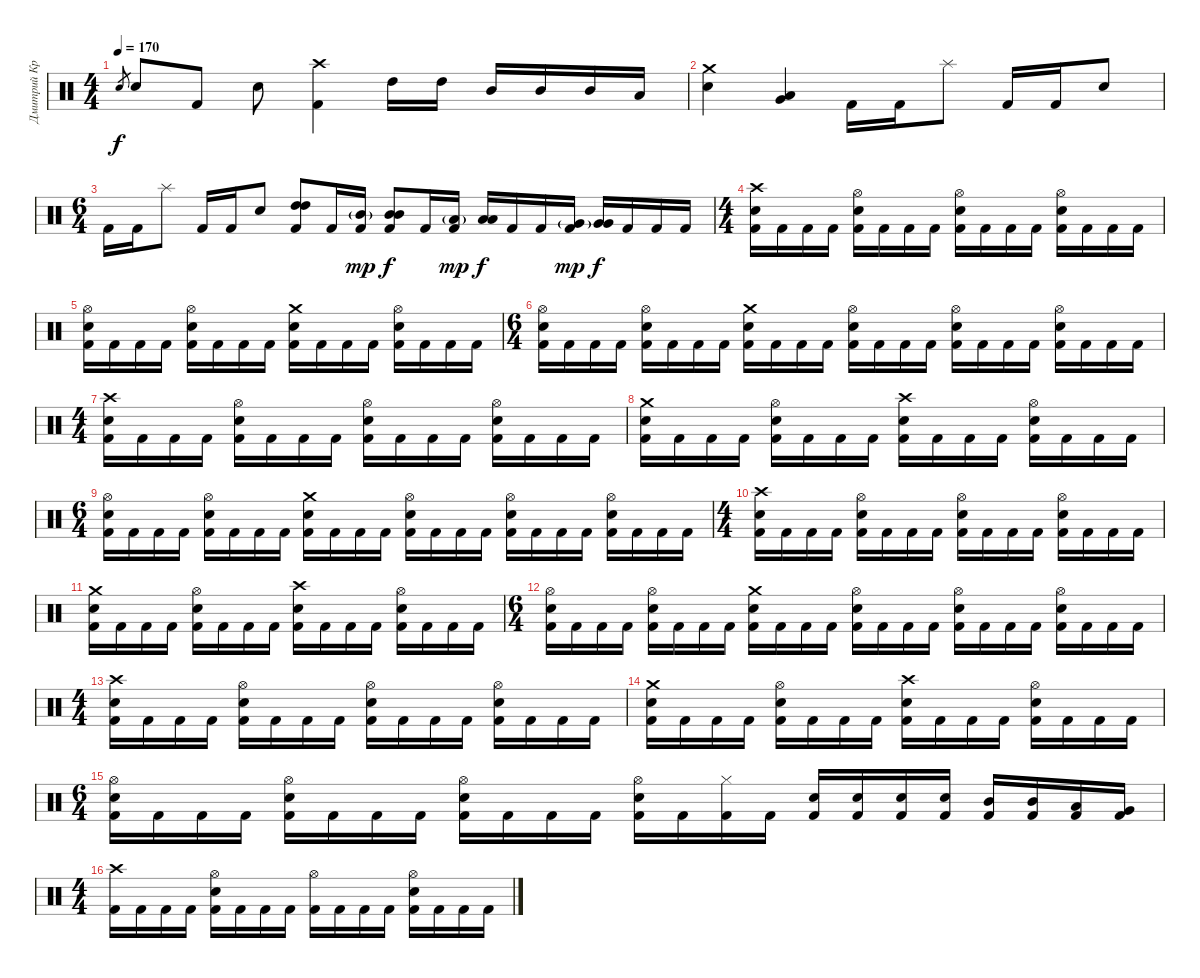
\track ("Дмитрий Кривенков" "Дмитрий Кр") {instrument percussion}
\staff {score}
\articulation defaults
\ts (4 4)
\tempo 170
\clef neutral
\ks c "Electric Snare (hit)".8{gr dy f} "Electric Snare (hit)".8 "Kick (hit) 2".8 "Electric Snare (hit)".8
("Crash high (hit)" "Kick (hit) 2").4 "High Tom (hit)".16 "High Tom (hit)".16 "Mid Tom (hit)".16 "Mid Tom (hit)".16 "Mid Tom (hit)".16 "Low Tom (hit)".16 |
("Crash medium (hit)" "Electric Snare (hit)").4 ("Low Floor Tom (hit)" "Very Low Tom (hit)").4 "Kick (hit) 2".16 "Kick (hit) 2".16 "Splash (hit)".8 "Kick (hit) 2".16 "Kick (hit) 2".16 "Electric Snare (hit)".8 |
\ts (6 4)
"Kick (hit) 2".16 "Kick (hit) 2".16 "Splash (hit)".8 "Kick (hit) 2".16 "Kick (hit) 2".16 "Electric Snare (hit)".8 ("High Tom (hit)" "High Tom (hit)" "Kick (hit) 2").8 "Kick (hit) 2".16 ("Mid Tom (hit)"{g} "Kick (hit) 2").16{dy mp} ("Mid Tom (hit)" "Mid Tom (hit)" "Kick (hit) 2").8{dy f} "Kick (hit) 2".16 ("Low Tom (hit)"{g} "Kick (hit) 2").16{dy mp} ("Low Tom (hit)" "Low Tom (hit)").16{dy f} "Kick (hit) 2".16 "Kick (hit) 2".16 ("Very Low Tom (hit)"{g} "Kick (hit) 2").16{dy mp} ("Very Low Tom (hit)" "Very Low Tom (hit)").16{dy f} "Kick (hit) 2".16 "Kick (hit) 2".16 "Kick (hit) 2".16 |
\ts (4 4)
("Crash high (hit)" "Electric Snare (hit)" "Kick (hit) 2").16 "Kick (hit) 2".16 "Kick (hit) 2".16 "Kick (hit) 2".16 ("Hi-Hat (open)" "Electric Snare (hit)" "Kick (hit) 2").16 "Kick (hit) 2".16 "Kick (hit) 2".16 "Kick (hit) 2".16 ("Hi-Hat (open)" "Electric Snare (hit)" "Kick (hit) 2").16 "Kick (hit) 2".16 "Kick (hit) 2".16 "Kick (hit) 2".16 ("Hi-Hat (open)" "Electric Snare (hit)" "Kick (hit) 2").16 "Kick (hit) 2".16 "Kick (hit) 2".16 "Kick (hit) 2".16 |
("Hi-Hat (open)" "Electric Snare (hit)" "Kick (hit) 2").16 "Kick (hit) 2".16 "Kick (hit) 2".16 "Kick (hit) 2".16 ("Hi-Hat (open)" "Electric Snare (hit)" "Kick (hit) 2").16 "Kick (hit) 2".16 "Kick (hit) 2".16 "Kick (hit) 2".16 ("Crash medium (hit)" "Electric Snare (hit)" "Kick (hit) 2").16 "Kick (hit) 2".16 "Kick (hit) 2".16 "Kick (hit) 2".16 ("Hi-Hat (open)" "Electric Snare (hit)" "Kick (hit) 2").16 "Kick (hit) 2".16 "Kick (hit) 2".16 "Kick (hit) 2".16 |
\ts (6 4)
("Hi-Hat (open)" "Electric Snare (hit)" "Kick (hit) 2").16 "Kick (hit) 2".16 "Kick (hit) 2".16 "Kick (hit) 2".16 ("Hi-Hat (open)" "Electric Snare (hit)" "Kick (hit) 2").16 "Kick (hit) 2".16 "Kick (hit) 2".16 "Kick (hit) 2".16 ("Crash medium (hit)" "Electric Snare (hit)" "Kick (hit) 2").16 "Kick (hit) 2".16 "Kick (hit) 2".16 "Kick (hit) 2".16 ("Hi-Hat (open)" "Electric Snare (hit)" "Kick (hit) 2").16 "Kick (hit) 2".16 "Kick (hit) 2".16 "Kick (hit) 2".16 ("Hi-Hat (open)" "Electric Snare (hit)" "Kick (hit) 2").16 "Kick (hit) 2".16 "Kick (hit) 2".16 "Kick (hit) 2".16 ("Hi-Hat (open)" "Electric Snare (hit)" "Kick (hit) 2").16 "Kick (hit) 2".16 "Kick (hit) 2".16 "Kick (hit) 2".16 |
\ts (4 4)
("Crash high (hit)" "Electric Snare (hit)" "Kick (hit) 2").16 "Kick (hit) 2".16 "Kick (hit) 2".16 "Kick (hit) 2".16 ("Hi-Hat (open)" "Electric Snare (hit)" "Kick (hit) 2").16 "Kick (hit) 2".16 "Kick (hit) 2".16 "Kick (hit) 2".16 ("Hi-Hat (open)" "Electric Snare (hit)" "Kick (hit) 2").16 "Kick (hit) 2".16 "Kick (hit) 2".16 "Kick (hit) 2".16 ("Hi-Hat (open)" "Electric Snare (hit)" "Kick (hit) 2").16 "Kick (hit) 2".16 "Kick (hit) 2".16 "Kick (hit) 2".16 |
("Crash medium (hit)" "Electric Snare (hit)" "Kick (hit) 2").16 "Kick (hit) 2".16 "Kick (hit) 2".16 "Kick (hit) 2".16 ("Hi-Hat (open)" "Electric Snare (hit)" "Kick (hit) 2").16 "Kick (hit) 2".16 "Kick (hit) 2".16 "Kick (hit) 2".16 ("Crash high (hit)" "Electric Snare (hit)" "Kick (hit) 2").16 "Kick (hit) 2".16 "Kick (hit) 2".16 "Kick (hit) 2".16 ("Hi-Hat (open)" "Electric Snare (hit)" "Kick (hit) 2").16 "Kick (hit) 2".16 "Kick (hit) 2".16 "Kick (hit) 2".16 |
\ts (6 4)
("Hi-Hat (open)" "Electric Snare (hit)" "Kick (hit) 2").16 "Kick (hit) 2".16 "Kick (hit) 2".16 "Kick (hit) 2".16 ("Hi-Hat (open)" "Electric Snare (hit)" "Kick (hit) 2").16 "Kick (hit) 2".16 "Kick (hit) 2".16 "Kick (hit) 2".16 ("Crash medium (hit)" "Electric Snare (hit)" "Kick (hit) 2").16 "Kick (hit) 2".16 "Kick (hit) 2".16 "Kick (hit) 2".16 ("Hi-Hat (open)" "Electric Snare (hit)" "Kick (hit) 2").16 "Kick (hit) 2".16 "Kick (hit) 2".16 "Kick (hit) 2".16 ("Hi-Hat (open)" "Electric Snare (hit)" "Kick (hit) 2").16 "Kick (hit) 2".16 "Kick (hit) 2".16 "Kick (hit) 2".16 ("Hi-Hat (open)" "Electric Snare (hit)" "Kick (hit) 2").16 "Kick (hit) 2".16 "Kick (hit) 2".16 "Kick (hit) 2".16 |
\ts (4 4)
("Crash high (hit)" "Electric Snare (hit)" "Kick (hit) 2").16 "Kick (hit) 2".16 "Kick (hit) 2".16 "Kick (hit) 2".16 ("Hi-Hat (open)" "Electric Snare (hit)" "Kick (hit) 2").16 "Kick (hit) 2".16 "Kick (hit) 2".16 "Kick (hit) 2".16 ("Hi-Hat (open)" "Electric Snare (hit)" "Kick (hit) 2").16 "Kick (hit) 2".16 "Kick (hit) 2".16 "Kick (hit) 2".16 ("Hi-Hat (open)" "Electric Snare (hit)" "Kick (hit) 2").16 "Kick (hit) 2".16 "Kick (hit) 2".16 "Kick (hit) 2".16 |
("Crash medium (hit)" "Electric Snare (hit)" "Kick (hit) 2").16 "Kick (hit) 2".16 "Kick (hit) 2".16 "Kick (hit) 2".16 ("Hi-Hat (open)" "Electric Snare (hit)" "Kick (hit) 2").16 "Kick (hit) 2".16 "Kick (hit) 2".16 "Kick (hit) 2".16 ("Crash high (hit)" "Electric Snare (hit)" "Kick (hit) 2").16 "Kick (hit) 2".16 "Kick (hit) 2".16 "Kick (hit) 2".16 ("Hi-Hat (open)" "Electric Snare (hit)" "Kick (hit) 2").16 "Kick (hit) 2".16 "Kick (hit) 2".16 "Kick (hit) 2".16 |
\ts (6 4)
("Hi-Hat (open)" "Electric Snare (hit)" "Kick (hit) 2").16 "Kick (hit) 2".16 "Kick (hit) 2".16 "Kick (hit) 2".16 ("Hi-Hat (open)" "Electric Snare (hit)" "Kick (hit) 2").16 "Kick (hit) 2".16 "Kick (hit) 2".16 "Kick (hit) 2".16 ("Crash medium (hit)" "Electric Snare (hit)" "Kick (hit) 2").16 "Kick (hit) 2".16 "Kick (hit) 2".16 "Kick (hit) 2".16 ("Hi-Hat (open)" "Electric Snare (hit)" "Kick (hit) 2").16 "Kick (hit) 2".16 "Kick (hit) 2".16 "Kick (hit) 2".16 ("Hi-Hat (open)" "Electric Snare (hit)" "Kick (hit) 2").16 "Kick (hit) 2".16 "Kick (hit) 2".16 "Kick (hit) 2".16 ("Hi-Hat (open)" "Electric Snare (hit)" "Kick (hit) 2").16 "Kick (hit) 2".16 "Kick (hit) 2".16 "Kick (hit) 2".16 |
\ts (4 4)
("Crash high (hit)" "Electric Snare (hit)" "Kick (hit) 2").16 "Kick (hit) 2".16 "Kick (hit) 2".16 "Kick (hit) 2".16 ("Hi-Hat (open)" "Electric Snare (hit)" "Kick (hit) 2").16 "Kick (hit) 2".16 "Kick (hit) 2".16 "Kick (hit) 2".16 ("Hi-Hat (open)" "Electric Snare (hit)" "Kick (hit) 2").16 "Kick (hit) 2".16 "Kick (hit) 2".16 "Kick (hit) 2".16 ("Hi-Hat (open)" "Electric Snare (hit)" "Kick (hit) 2").16 "Kick (hit) 2".16 "Kick (hit) 2".16 "Kick (hit) 2".16 |
("Crash medium (hit)" "Electric Snare (hit)" "Kick (hit) 2").16 "Kick (hit) 2".16 "Kick (hit) 2".16 "Kick (hit) 2".16 ("Hi-Hat (open)" "Electric Snare (hit)" "Kick (hit) 2").16 "Kick (hit) 2".16 "Kick (hit) 2".16 "Kick (hit) 2".16 ("Crash high (hit)" "Electric Snare (hit)" "Kick (hit) 2").16 "Kick (hit) 2".16 "Kick (hit) 2".16 "Kick (hit) 2".16 ("Hi-Hat (open)" "Electric Snare (hit)" "Kick (hit) 2").16 "Kick (hit) 2".16 "Kick (hit) 2".16 "Kick (hit) 2".16 |
\ts (6 4)
("Hi-Hat (open)" "Electric Snare (hit)" "Kick (hit) 2").16 "Kick (hit) 2".16 "Kick (hit) 2".16 "Kick (hit) 2".16 ("Hi-Hat (open)" "Electric Snare (hit)" "Kick (hit) 2").16 "Kick (hit) 2".16 "Kick (hit) 2".16 "Kick (hit) 2".16 ("Hi-Hat (open)" "Electric Snare (hit)" "Kick (hit) 2").16 "Kick (hit) 2".16 "Kick (hit) 2".16 "Kick (hit) 2".16 ("Hi-Hat (open)" "Electric Snare (hit)" "Kick (hit) 2").16 "Kick (hit) 2".16 ("Hi-Hat (closed)" "Kick (hit) 2").16 "Kick (hit) 2".16 ("Electric Snare (hit)" "Kick (hit) 2").16 ("Electric Snare (hit)" "Kick (hit) 2").16 ("Electric Snare (hit)" "Kick (hit) 2").16 ("Electric Snare (hit)" "Kick (hit) 2").16 ("Mid Tom (hit)" "Kick (hit) 2").16 ("Mid Tom (hit)" "Kick (hit) 2").16 ("Low Tom (hit)" "Kick (hit) 2").16 ("Very Low Tom (hit)" "Kick (hit) 2").16 |
\ts (4 4)
("Crash high (hit)" "Kick (hit) 2").16 "Kick (hit) 2".16 "Kick (hit) 2".16 "Kick (hit) 2".16 ("Hi-Hat (open)" "Electric Snare (hit)" "Kick (hit) 2").16 "Kick (hit) 2".16 "Kick (hit) 2".16 "Kick (hit) 2".16 ("Hi-Hat (open)" "Kick (hit) 2").16 "Kick (hit) 2".16 "Kick (hit) 2".16 "Kick (hit) 2".16 ("Hi-Hat (open)" "Electric Snare (hit)" "Kick (hit) 2").16 "Kick (hit) 2".16 "Kick (hit) 2".16 "Kick (hit) 2".16
